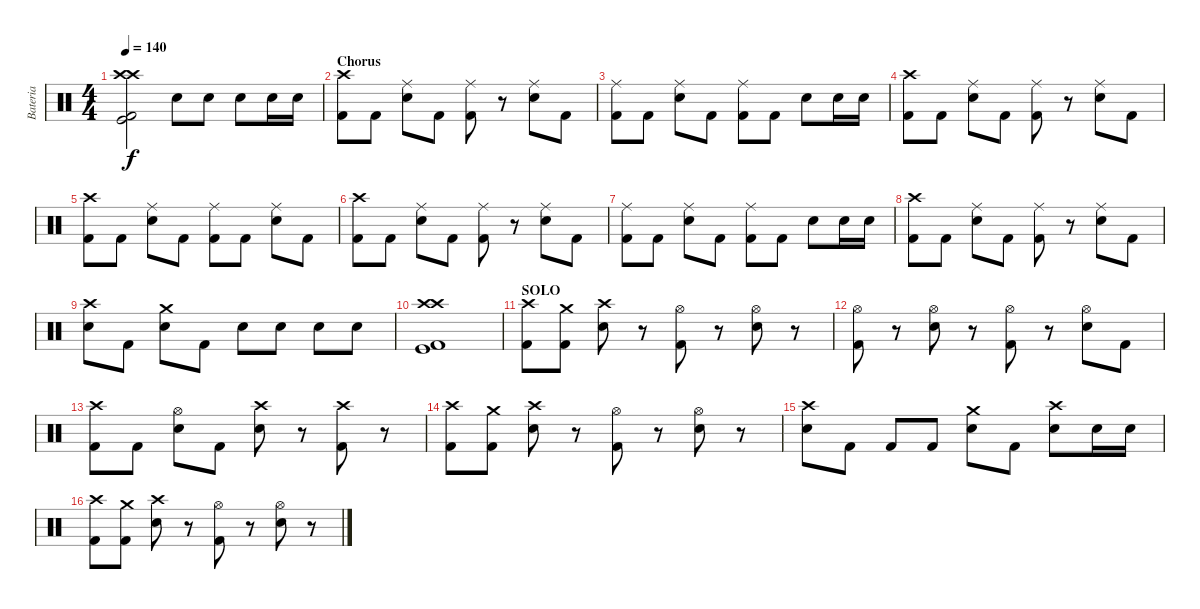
\track ("Bateria" "Bateria") {instrument percussion}
\staff {score}
\articulation defaults
\ts (4 4)
\tempo 140
\clef neutral
\ks c
("Crash high (hit)" "Crash high (hit)" "Kick (hit)" "Kick (hit) 2").2{dy f} "Snare (hit) 2".8 "Snare (hit) 2".8 "Snare (hit) 2".8 "Snare (hit) 2".16 "Snare (hit) 2".16 |
\section ("" "Chorus")
("Crash high (hit)" "Kick (hit) 2").8 "Kick (hit) 2".8 ("Ride (middle)" "Snare (hit) 2").8 "Kick (hit) 2".8 ("Ride (middle)" "Kick (hit) 2").8 r.8 ("Ride (middle)" "Snare (hit) 2").8 "Kick (hit) 2".8 |
("Ride (middle)" "Kick (hit) 2").8 "Kick (hit) 2".8 ("Ride (middle)" "Snare (hit) 2").8 "Kick (hit) 2".8 ("Ride (middle)" "Kick (hit) 2").8 "Kick (hit) 2".8 "Snare (hit) 2".8 "Snare (hit) 2".16 "Snare (hit) 2".16 |
("Crash high (hit)" "Kick (hit) 2").8 "Kick (hit) 2".8 ("Ride (middle)" "Snare (hit) 2").8 "Kick (hit) 2".8 ("Ride (middle)" "Kick (hit) 2").8 r.8 ("Ride (middle)" "Snare (hit) 2").8 "Kick (hit) 2".8 |
("Crash high (hit)" "Kick (hit) 2").8 "Kick (hit) 2".8 ("Ride (middle)" "Snare (hit) 2").8 "Kick (hit) 2".8 ("Ride (middle)" "Kick (hit) 2").8 "Kick (hit) 2".8 ("Ride (middle)" "Snare (hit) 2").8 "Kick (hit) 2".8 |
("Crash high (hit)" "Kick (hit) 2").8 "Kick (hit) 2".8 ("Ride (middle)" "Snare (hit) 2").8 "Kick (hit) 2".8 ("Ride (middle)" "Kick (hit) 2").8 r.8 ("Ride (middle)" "Snare (hit) 2").8 "Kick (hit) 2".8 |
("Ride (middle)" "Kick (hit) 2").8 "Kick (hit) 2".8 ("Ride (middle)" "Snare (hit) 2").8 "Kick (hit) 2".8 ("Ride (middle)" "Kick (hit) 2").8 "Kick (hit) 2".8 "Snare (hit) 2".8 "Snare (hit) 2".16 "Snare (hit) 2".16 |
("Crash high (hit)" "Kick (hit) 2").8 "Kick (hit) 2".8 ("Ride (middle)" "Snare (hit) 2").8 "Kick (hit) 2".8 ("Ride (middle)" "Kick (hit) 2").8 r.8 ("Ride (middle)" "Snare (hit) 2").8 "Kick (hit) 2".8 |
("Crash high (hit)" "Snare (hit) 2").8 "Kick (hit) 2".8 ("Crash medium (hit)" "Snare (hit) 2").8 "Kick (hit) 2".8 "Snare (hit) 2".8 "Snare (hit) 2".8 "Snare (hit) 2".8 "Snare (hit) 2".8 |
("Crash high (hit)" "Crash high (hit)" "Kick (hit)" "Kick (hit) 2").1 |
\section ("" "SOLO")
("Crash high (hit)" "Kick (hit) 2").8 ("Crash medium (hit)" "Kick (hit) 2").8 ("Crash high (hit)" "Snare (hit) 2").8 r.8 ("Hi-Hat (open)" "Kick (hit) 2").8 r.8 ("Hi-Hat (open)" "Snare (hit) 2").8 r.8 |
("Hi-Hat (open)" "Kick (hit) 2").8 r.8 ("Hi-Hat (open)" "Snare (hit) 2").8 r.8 ("Hi-Hat (open)" "Kick (hit) 2").8 r.8 ("Hi-Hat (open)" "Snare (hit) 2").8 "Kick (hit) 2".8 |
("Crash high (hit)" "Kick (hit) 2").8 "Kick (hit) 2".8 ("Hi-Hat (open)" "Snare (hit) 2").8 "Kick (hit) 2".8 ("Crash high (hit)" "Snare (hit) 2").8 r.8 ("Crash high (hit)" "Kick (hit) 2").8 r.8 |
("Crash high (hit)" "Kick (hit) 2").8 ("Crash medium (hit)" "Kick (hit) 2").8 ("Crash high (hit)" "Snare (hit) 2").8 r.8 ("Hi-Hat (open)" "Kick (hit) 2").8 r.8 ("Hi-Hat (open)" "Snare (hit) 2").8 r.8 |
("Crash high (hit)" "Snare (hit) 2").8 "Kick (hit) 2".8 "Kick (hit) 2".8 "Kick (hit) 2".8 ("Crash medium (hit)" "Snare (hit) 2").8 "Kick (hit) 2".8 ("Crash high (hit)" "Snare (hit) 2").8 "Snare (hit) 2".16 "Snare (hit) 2".16 |
("Crash high (hit)" "Kick (hit) 2").8 ("Crash medium (hit)" "Kick (hit) 2").8 ("Crash high (hit)" "Snare (hit) 2").8 r.8 ("Hi-Hat (open)" "Kick (hit) 2").8 r.8 ("Hi-Hat (open)" "Snare (hit) 2").8 r.8
